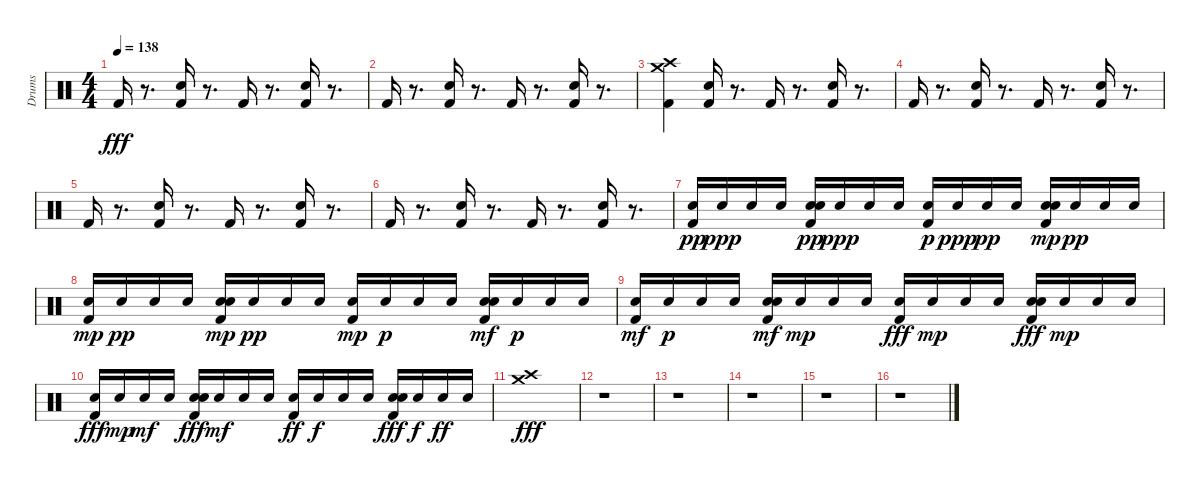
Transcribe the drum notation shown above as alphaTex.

\track ("Drums" "Drums") {instrument percussion}
\staff {score}
\articulation defaults
\ts (4 4)
\tempo 138
\clef neutral
\ks c "Kick (hit) 2".16{dy fff}
r.8{d} ("Kick (hit) 2" "Hand Clap (hit)").16 r.8{d} "Kick (hit) 2".16 r.8{d} ("Kick (hit) 2" "Hand Clap (hit)").16 r.8{d} |
"Kick (hit) 2".16 r.8{d} ("Kick (hit) 2" "Hand Clap (hit)").16 r.8{d} "Kick (hit) 2".16 r.8{d} ("Kick (hit) 2" "Hand Clap (hit)").16 r.8{d} |
("Kick (hit) 2" "Crash medium (hit)" "Crash high (hit)").4 ("Kick (hit) 2" "Hand Clap (hit)").16 r.8{d} "Kick (hit) 2".16 r.8{d} ("Kick (hit) 2" "Hand Clap (hit)").16 r.8{d} |
"Kick (hit) 2".16 r.8{d} ("Kick (hit) 2" "Hand Clap (hit)").16 r.8{d} "Kick (hit) 2".16 r.8{d} ("Kick (hit) 2" "Hand Clap (hit)").16 r.8{d} |
"Kick (hit) 2".16 r.8{d} ("Kick (hit) 2" "Hand Clap (hit)").16 r.8{d} "Kick (hit) 2".16 r.8{d} ("Kick (hit) 2" "Hand Clap (hit)").16 r.8{d} |
"Kick (hit) 2".16 r.8{d} ("Kick (hit) 2" "Hand Clap (hit)").16 r.8{d} "Kick (hit) 2".16 r.8{d} ("Kick (hit) 2" "Hand Clap (hit)").16 r.8{d} |
("Kick (hit) 2" "Snare (hit) 2").16{dy pp} "Snare (hit) 2".16{dy ppp} "Snare (hit) 2".16 "Snare (hit) 2".16 ("Kick (hit) 2" "Hand Clap (hit)" "Snare (hit) 2").16{dy pp} "Snare (hit) 2".16{dy ppp} "Snare (hit) 2".16 "Snare (hit) 2".16 ("Kick (hit) 2" "Snare (hit) 2").16{dy p} "Snare (hit) 2".16{dy ppp} "Snare (hit) 2".16{dy pp} "Snare (hit) 2".16 ("Kick (hit) 2" "Hand Clap (hit)" "Snare (hit) 2").16{dy mp} "Snare (hit) 2".16{dy pp} "Snare (hit) 2".16 "Snare (hit) 2".16 |
("Kick (hit) 2" "Snare (hit) 2").16{dy mp} "Snare (hit) 2".16{dy pp} "Snare (hit) 2".16 "Snare (hit) 2".16 ("Kick (hit) 2" "Hand Clap (hit)" "Snare (hit) 2").16{dy mp} "Snare (hit) 2".16{dy pp} "Snare (hit) 2".16 "Snare (hit) 2".16 ("Kick (hit) 2" "Snare (hit) 2").16{dy mp} "Snare (hit) 2".16{dy p} "Snare (hit) 2".16 "Snare (hit) 2".16 ("Kick (hit) 2" "Hand Clap (hit)" "Snare (hit) 2").16{dy mf} "Snare (hit) 2".16{dy p} "Snare (hit) 2".16 "Snare (hit) 2".16 |
("Kick (hit) 2" "Snare (hit) 2").16{dy mf} "Snare (hit) 2".16{dy p} "Snare (hit) 2".16 "Snare (hit) 2".16 ("Kick (hit) 2" "Hand Clap (hit)" "Snare (hit) 2").16{dy mf} "Snare (hit) 2".16{dy mp} "Snare (hit) 2".16 "Snare (hit) 2".16 ("Kick (hit) 2" "Snare (hit) 2").16{dy fff} "Snare (hit) 2".16{dy mp} "Snare (hit) 2".16 "Snare (hit) 2".16 ("Kick (hit) 2" "Hand Clap (hit)" "Snare (hit) 2").16{dy fff} "Snare (hit) 2".16{dy mp} "Snare (hit) 2".16 "Snare (hit) 2".16 |
("Kick (hit) 2" "Snare (hit) 2").16{dy fff} "Snare (hit) 2".16{dy mp} "Snare (hit) 2".16{dy mf} "Snare (hit) 2".16 ("Kick (hit) 2" "Hand Clap (hit)" "Snare (hit) 2").16{dy fff} "Snare (hit) 2".16{dy mf} "Snare (hit) 2".16 "Snare (hit) 2".16 ("Kick (hit) 2" "Snare (hit) 2").16{dy ff} "Snare (hit) 2".16{dy f} "Snare (hit) 2".16 "Snare (hit) 2".16 ("Kick (hit) 2" "Hand Clap (hit)" "Snare (hit) 2").16{dy fff} "Snare (hit) 2".16{dy f} "Snare (hit) 2".16{dy ff} "Snare (hit) 2".16 |
("Crash medium (hit)" "Crash high (hit)").1{dy fff} |
r.1 |
r.1 |
r.1 |
r.1 |
r.1
